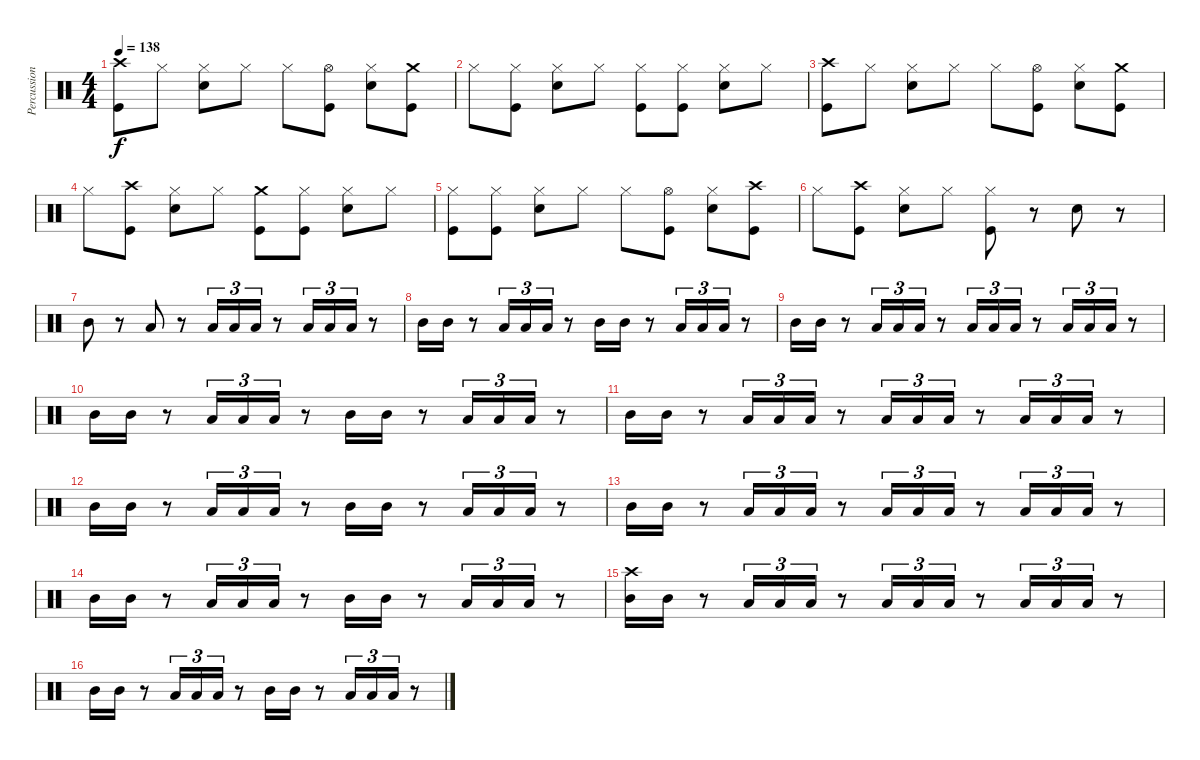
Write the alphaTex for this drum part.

\track ("Percussion" "Percussion") {instrument percussion}
\staff {score}
\articulation defaults
\ts (4 4)
\tempo 138
\clef neutral
\ks c
("Kick (hit)" "Crash high (hit)").8{dy f} "Hi-Hat (closed)".8 ("Snare (hit) 2" "Hi-Hat (closed)").8 "Hi-Hat (closed)".8 "Hi-Hat (closed)".8 ("Kick (hit)" "Hi-Hat (open)").8 ("Snare (hit) 2" "Hi-Hat (closed)").8 ("Kick (hit)" "Crash medium (hit)").8 |
"Hi-Hat (closed)".8 ("Hi-Hat (closed)" "Kick (hit)").8 ("Hi-Hat (closed)" "Snare (hit) 2").8 "Hi-Hat (closed)".8 ("Hi-Hat (closed)" "Kick (hit)").8 ("Hi-Hat (closed)" "Kick (hit)").8 ("Snare (hit) 2" "Hi-Hat (closed)").8 "Hi-Hat (closed)".8 |
("Kick (hit)" "Crash high (hit)").8 "Hi-Hat (closed)".8 ("Snare (hit) 2" "Hi-Hat (closed)").8 "Hi-Hat (closed)".8 "Hi-Hat (closed)".8 ("Kick (hit)" "Hi-Hat (open)").8 ("Snare (hit) 2" "Hi-Hat (closed)").8 ("Kick (hit)" "Crash medium (hit)").8 |
"Hi-Hat (closed)".8 ("Crash high (hit)" "Kick (hit)").8 ("Hi-Hat (closed)" "Snare (hit) 2").8 "Hi-Hat (closed)".8 ("Crash medium (hit)" "Kick (hit)").8 ("Hi-Hat (closed)" "Kick (hit)").8 ("Snare (hit) 2" "Hi-Hat (closed)").8 "Hi-Hat (closed)".8 |
("Hi-Hat (closed)" "Kick (hit)").8 ("Hi-Hat (closed)" "Kick (hit)").8 ("Hi-Hat (closed)" "Snare (hit) 2").8 "Hi-Hat (closed)".8 "Hi-Hat (closed)".8 ("Hi-Hat (open)" "Kick (hit)").8 ("Hi-Hat (closed)" "Snare (hit) 2").8 ("Crash high (hit)" "Kick (hit)").8 |
"Hi-Hat (closed)".8 ("Crash high (hit)" "Kick (hit)").8 ("Hi-Hat (closed)" "Snare (hit) 2").8 "Hi-Hat (closed)".8 ("Hi-Hat (closed)" "Kick (hit)").8 r.8 "Snare (hit) 2".8 r.8 |
"Mid Tom (hit)".8 r.8 "Low Tom (hit)".8 r.8 "Low Tom (hit)".16{tu (3 2)} "Low Tom (hit)".16{tu (3 2)} "Low Tom (hit)".16{tu (3 2)} r.8 "Low Tom (hit)".16{tu (3 2)} "Low Tom (hit)".16{tu (3 2)} "Low Tom (hit)".16{tu (3 2)} r.8 |
"Mid Tom (hit)".16 "Mid Tom (hit)".16 r.8 "Low Tom (hit)".16{tu (3 2)} "Low Tom (hit)".16{tu (3 2)} "Low Tom (hit)".16{tu (3 2)} r.8 "Mid Tom (hit)".16 "Mid Tom (hit)".16 r.8 "Low Tom (hit)".16{tu (3 2)} "Low Tom (hit)".16{tu (3 2)} "Low Tom (hit)".16{tu (3 2)} r.8 |
"Mid Tom (hit)".16 "Mid Tom (hit)".16 r.8 "Low Tom (hit)".16{tu (3 2)} "Low Tom (hit)".16{tu (3 2)} "Low Tom (hit)".16{tu (3 2)} r.8 "Low Tom (hit)".16{tu (3 2)} "Low Tom (hit)".16{tu (3 2)} "Low Tom (hit)".16{tu (3 2)} r.8 "Low Tom (hit)".16{tu (3 2)} "Low Tom (hit)".16{tu (3 2)} "Low Tom (hit)".16{tu (3 2)} r.8 |
"Mid Tom (hit)".16 "Mid Tom (hit)".16 r.8 "Low Tom (hit)".16{tu (3 2)} "Low Tom (hit)".16{tu (3 2)} "Low Tom (hit)".16{tu (3 2)} r.8 "Mid Tom (hit)".16 "Mid Tom (hit)".16 r.8 "Low Tom (hit)".16{tu (3 2)} "Low Tom (hit)".16{tu (3 2)} "Low Tom (hit)".16{tu (3 2)} r.8 |
"Mid Tom (hit)".16 "Mid Tom (hit)".16 r.8 "Low Tom (hit)".16{tu (3 2)} "Low Tom (hit)".16{tu (3 2)} "Low Tom (hit)".16{tu (3 2)} r.8 "Low Tom (hit)".16{tu (3 2)} "Low Tom (hit)".16{tu (3 2)} "Low Tom (hit)".16{tu (3 2)} r.8 "Low Tom (hit)".16{tu (3 2)} "Low Tom (hit)".16{tu (3 2)} "Low Tom (hit)".16{tu (3 2)} r.8 |
"Mid Tom (hit)".16 "Mid Tom (hit)".16 r.8 "Low Tom (hit)".16{tu (3 2)} "Low Tom (hit)".16{tu (3 2)} "Low Tom (hit)".16{tu (3 2)} r.8 "Mid Tom (hit)".16 "Mid Tom (hit)".16 r.8 "Low Tom (hit)".16{tu (3 2)} "Low Tom (hit)".16{tu (3 2)} "Low Tom (hit)".16{tu (3 2)} r.8 |
"Mid Tom (hit)".16 "Mid Tom (hit)".16 r.8 "Low Tom (hit)".16{tu (3 2)} "Low Tom (hit)".16{tu (3 2)} "Low Tom (hit)".16{tu (3 2)} r.8 "Low Tom (hit)".16{tu (3 2)} "Low Tom (hit)".16{tu (3 2)} "Low Tom (hit)".16{tu (3 2)} r.8 "Low Tom (hit)".16{tu (3 2)} "Low Tom (hit)".16{tu (3 2)} "Low Tom (hit)".16{tu (3 2)} r.8 |
"Mid Tom (hit)".16 "Mid Tom (hit)".16 r.8 "Low Tom (hit)".16{tu (3 2)} "Low Tom (hit)".16{tu (3 2)} "Low Tom (hit)".16{tu (3 2)} r.8 "Mid Tom (hit)".16 "Mid Tom (hit)".16 r.8 "Low Tom (hit)".16{tu (3 2)} "Low Tom (hit)".16{tu (3 2)} "Low Tom (hit)".16{tu (3 2)} r.8 |
("Mid Tom (hit)" "Crash high (hit)").16 "Mid Tom (hit)".16 r.8 "Low Tom (hit)".16{tu (3 2)} "Low Tom (hit)".16{tu (3 2)} "Low Tom (hit)".16{tu (3 2)} r.8 "Low Tom (hit)".16{tu (3 2)} "Low Tom (hit)".16{tu (3 2)} "Low Tom (hit)".16{tu (3 2)} r.8 "Low Tom (hit)".16{tu (3 2)} "Low Tom (hit)".16{tu (3 2)} "Low Tom (hit)".16{tu (3 2)} r.8 |
"Mid Tom (hit)".16 "Mid Tom (hit)".16 r.8 "Low Tom (hit)".16{tu (3 2)} "Low Tom (hit)".16{tu (3 2)} "Low Tom (hit)".16{tu (3 2)} r.8 "Mid Tom (hit)".16 "Mid Tom (hit)".16 r.8 "Low Tom (hit)".16{tu (3 2)} "Low Tom (hit)".16{tu (3 2)} "Low Tom (hit)".16{tu (3 2)} r.8
